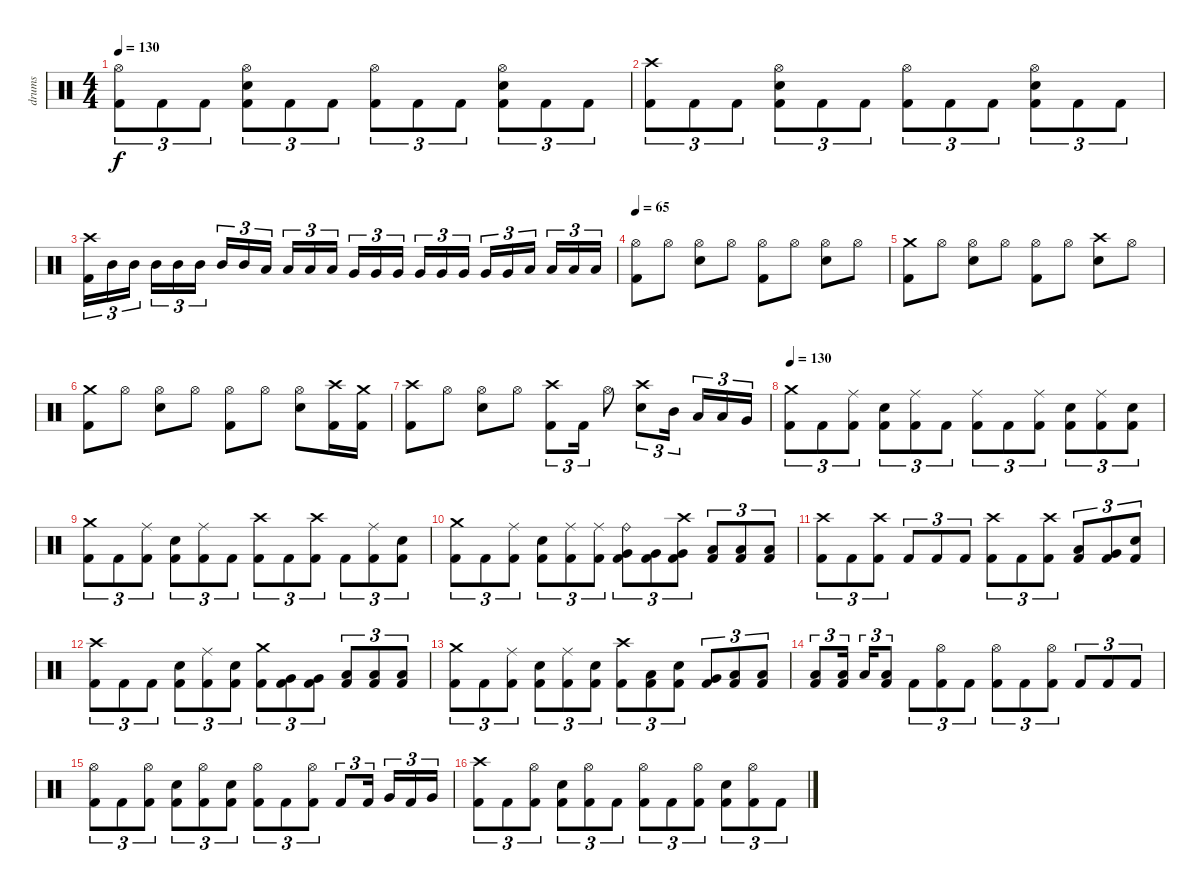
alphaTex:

\track ("drums" "drums") {instrument percussion}
\staff {score}
\articulation defaults
\ts (4 4)
\tempo 130
\clef neutral
\ks c
("Hi-Hat (open)" "Kick (hit) 2").8{tu (3 2) dy f} "Kick (hit) 2".8{tu (3 2)} "Kick (hit) 2".8{tu (3 2)} ("Hi-Hat (open)" "Electric Snare (hit)" "Kick (hit) 2").8{tu (3 2)} "Kick (hit) 2".8{tu (3 2)} "Kick (hit) 2".8{tu (3 2)} ("Hi-Hat (open)" "Kick (hit) 2").8{tu (3 2)} "Kick (hit) 2".8{tu (3 2)} "Kick (hit) 2".8{tu (3 2)} ("Hi-Hat (open)" "Electric Snare (hit)" "Kick (hit) 2").8{tu (3 2)} "Kick (hit) 2".8{tu (3 2)} "Kick (hit) 2".8{tu (3 2)} |
("Crash high (hit)" "Kick (hit) 2").8{tu (3 2)} "Kick (hit) 2".8{tu (3 2)} "Kick (hit) 2".8{tu (3 2)} ("Hi-Hat (open)" "Electric Snare (hit)" "Kick (hit) 2").8{tu (3 2)} "Kick (hit) 2".8{tu (3 2)} "Kick (hit) 2".8{tu (3 2)} ("Hi-Hat (open)" "Kick (hit) 2").8{tu (3 2)} "Kick (hit) 2".8{tu (3 2)} "Kick (hit) 2".8{tu (3 2)} ("Hi-Hat (open)" "Electric Snare (hit)" "Kick (hit) 2").8{tu (3 2)} "Kick (hit) 2".8{tu (3 2)} "Kick (hit) 2".8{tu (3 2)} |
("Crash high (hit)" "Kick (hit) 2").16{tu (3 2)} "Mid Tom (hit)".16{tu (3 2)} "Mid Tom (hit)".16{tu (3 2)} "Mid Tom (hit)".16{tu (3 2)} "Mid Tom (hit)".16{tu (3 2)} "Mid Tom (hit)".16{tu (3 2)} "Mid Tom (hit)".16{tu (3 2)} "Mid Tom (hit)".16{tu (3 2)} "Low Tom (hit)".16{tu (3 2)} "Low Tom (hit)".16{tu (3 2)} "Low Tom (hit)".16{tu (3 2)} "Low Tom (hit)".16{tu (3 2)} "Very Low Tom (hit)".16{tu (3 2)} "Very Low Tom (hit)".16{tu (3 2)} "Very Low Tom (hit)".16{tu (3 2)} "Very Low Tom (hit)".16{tu (3 2)} "Very Low Tom (hit)".16{tu (3 2)} "Very Low Tom (hit)".16{tu (3 2)} "Very Low Tom (hit)".16{tu (3 2)} "Very Low Tom (hit)".16{tu (3 2)} "Low Floor Tom (hit)".16{tu (3 2)} "Low Floor Tom (hit)".16{tu (3 2)} "Low Floor Tom (hit)".16{tu (3 2)} "Low Floor Tom (hit)".16{tu (3 2)} |
\tempo 65
("Hi-Hat (open)" "Kick (hit) 2").8 "Hi-Hat (open)".8 ("Hi-Hat (open)" "Electric Snare (hit)").8 "Hi-Hat (open)".8 ("Hi-Hat (open)" "Kick (hit) 2").8 "Hi-Hat (open)".8 ("Hi-Hat (open)" "Electric Snare (hit)").8 "Hi-Hat (open)".8 |
("Crash medium (hit)" "Kick (hit) 2").8 "Hi-Hat (open)".8 ("Hi-Hat (open)" "Electric Snare (hit)").8 "Hi-Hat (open)".8 ("Hi-Hat (open)" "Kick (hit) 2").8 "Hi-Hat (open)".8 ("Crash high (hit)" "Electric Snare (hit)").8 "Hi-Hat (open)".8 |
("Crash medium (hit)" "Kick (hit) 2").8 "Hi-Hat (open)".8 ("Hi-Hat (open)" "Electric Snare (hit)").8 "Hi-Hat (open)".8 ("Hi-Hat (open)" "Kick (hit) 2").8 "Hi-Hat (open)".8 ("Hi-Hat (open)" "Electric Snare (hit)").8 ("Crash high (hit)" "Kick (hit) 2").16 ("Crash medium (hit)" "Kick (hit) 2").16 |
("Crash high (hit)" "Kick (hit) 2").8 "Hi-Hat (open)".8 ("Hi-Hat (open)" "Electric Snare (hit)").8 "Hi-Hat (open)".8 ("Crash high (hit)" "Kick (hit) 2").8{tu (3 2)} "Kick (hit) 2".16{tu (3 2)} "Hi-Hat (open)".8 ("Crash high (hit)" "Electric Snare (hit)").8{tu (3 2)} "Mid Tom (hit)".16{tu (3 2)} "Low Tom (hit)".16{tu (3 2)} "Low Tom (hit)".16{tu (3 2)} "Very Low Tom (hit)".16{tu (3 2)} |
\tempo 130
("Crash medium (hit)" "Kick (hit) 2").8{tu (3 2)} "Kick (hit) 2".8{tu (3 2)} ("Ride (middle)" "Kick (hit) 2").8{tu (3 2)} ("Electric Snare (hit)" "Kick (hit) 2").8{tu (3 2)} ("Ride (middle)" "Kick (hit) 2").8{tu (3 2)} "Kick (hit) 2".8{tu (3 2)} ("Ride (middle)" "Kick (hit) 2").8{tu (3 2)} "Kick (hit) 2".8{tu (3 2)} ("Ride (middle)" "Kick (hit) 2").8{tu (3 2)} ("Electric Snare (hit)" "Kick (hit) 2").8{tu (3 2)} ("Ride (middle)" "Kick (hit) 2").8{tu (3 2)} ("Electric Snare (hit)" "Kick (hit) 2").8{tu (3 2)} |
("Crash medium (hit)" "Kick (hit) 2").8{tu (3 2)} "Kick (hit) 2".8{tu (3 2)} ("Ride (middle)" "Kick (hit) 2").8{tu (3 2)} ("Electric Snare (hit)" "Kick (hit) 2").8{tu (3 2)} ("Ride (middle)" "Kick (hit) 2").8{tu (3 2)} "Kick (hit) 2".8{tu (3 2)} ("Crash high (hit)" "Kick (hit) 2").8{tu (3 2)} "Kick (hit) 2".8{tu (3 2)} ("Crash high (hit)" "Kick (hit) 2").8{tu (3 2)} "Kick (hit) 2".8{tu (3 2)} ("Ride (middle)" "Kick (hit) 2").8{tu (3 2)} ("Electric Snare (hit)" "Kick (hit) 2").8{tu (3 2)} |
("Crash medium (hit)" "Kick (hit) 2").8{tu (3 2)} "Kick (hit) 2".8{tu (3 2)} ("Ride (middle)" "Kick (hit) 2").8{tu (3 2)} ("Electric Snare (hit)" "Kick (hit) 2").8{tu (3 2)} ("Ride (middle)" "Kick (hit) 2").8{tu (3 2)} ("Ride (middle)" "Kick (hit) 2").8{tu (3 2)} ("Ride (bell)" "Very Low Tom (hit)" "Kick (hit) 2").8{tu (3 2)} ("Very Low Tom (hit)" "Kick (hit) 2").8{tu (3 2)} ("Crash high (hit)" "Very Low Tom (hit)" "Kick (hit) 2").8{tu (3 2)} ("Low Floor Tom (hit)" "Kick (hit) 2").8{tu (3 2)} ("Low Floor Tom (hit)" "Kick (hit) 2").8{tu (3 2)} ("Low Floor Tom (hit)" "Kick (hit) 2").8{tu (3 2)} |
("Crash high (hit)" "Kick (hit) 2").8{tu (3 2)} "Kick (hit) 2".8{tu (3 2)} ("Crash high (hit)" "Kick (hit) 2").8{tu (3 2)} "Kick (hit) 2".8{tu (3 2)} "Kick (hit) 2".8{tu (3 2)} "Kick (hit) 2".8{tu (3 2)} ("Crash high (hit)" "Kick (hit) 2").8{tu (3 2)} "Kick (hit) 2".8{tu (3 2)} ("Crash high (hit)" "Kick (hit) 2").8{tu (3 2)} ("Low Tom (hit)" "Kick (hit) 2").8{tu (3 2)} ("Very Low Tom (hit)" "Kick (hit) 2").8{tu (3 2)} ("Electric Snare (hit)" "Kick (hit) 2").8{tu (3 2)} |
("Crash high (hit)" "Kick (hit) 2").8{tu (3 2)} "Kick (hit) 2".8{tu (3 2)} "Kick (hit) 2".8{tu (3 2)} ("Electric Snare (hit)" "Kick (hit) 2").8{tu (3 2)} ("Ride (middle)" "Kick (hit) 2").8{tu (3 2)} ("Electric Snare (hit)" "Kick (hit) 2").8{tu (3 2)} ("Crash medium (hit)" "Kick (hit) 2").8{tu (3 2)} ("Very Low Tom (hit)" "Kick (hit) 2").8{tu (3 2)} ("Very Low Tom (hit)" "Kick (hit) 2").8{tu (3 2)} ("Low Floor Tom (hit)" "Kick (hit) 2").8{tu (3 2)} ("Low Floor Tom (hit)" "Kick (hit) 2").8{tu (3 2)} ("Low Floor Tom (hit)" "Kick (hit) 2").8{tu (3 2)} |
("Crash medium (hit)" "Kick (hit) 2").8{tu (3 2)} "Kick (hit) 2".8{tu (3 2)} ("Ride (middle)" "Kick (hit) 2").8{tu (3 2)} ("Electric Snare (hit)" "Kick (hit) 2").8{tu (3 2)} ("Ride (middle)" "Kick (hit) 2").8{tu (3 2)} ("Electric Snare (hit)" "Kick (hit) 2").8{tu (3 2)} ("Crash high (hit)" "Kick (hit) 2").8{tu (3 2)} ("Low Tom (hit)" "Kick (hit) 2").8{tu (3 2)} ("Electric Snare (hit)" "Kick (hit) 2").8{tu (3 2)} ("Very Low Tom (hit)" "Kick (hit) 2").8{tu (3 2)} ("Low Floor Tom (hit)" "Kick (hit) 2").8{tu (3 2)} ("Low Floor Tom (hit)" "Kick (hit) 2").8{tu (3 2)} |
("Low Tom (hit)" "Kick (hit) 2").8{tu (3 2)} ("Low Tom (hit)" "Kick (hit) 2").16{tu (3 2)} "Low Tom (hit)".16{tu (3 2)} ("Low Tom (hit)" "Kick (hit) 2").8{tu (3 2)} "Kick (hit) 2".8{tu (3 2)} ("Hi-Hat (open)" "Kick (hit) 2").8{tu (3 2)} "Kick (hit) 2".8{tu (3 2)} ("Hi-Hat (open)" "Kick (hit) 2").8{tu (3 2)} "Kick (hit) 2".8{tu (3 2)} ("Hi-Hat (open)" "Kick (hit) 2").8{tu (3 2)} "Kick (hit) 2".8{tu (3 2)} "Kick (hit) 2".8{tu (3 2)} "Kick (hit) 2".8{tu (3 2)} |
("Hi-Hat (open)" "Kick (hit) 2").8{tu (3 2)} "Kick (hit) 2".8{tu (3 2)} ("Hi-Hat (open)" "Kick (hit) 2").8{tu (3 2)} ("Electric Snare (hit)" "Kick (hit) 2").8{tu (3 2)} ("Hi-Hat (open)" "Kick (hit) 2").8{tu (3 2)} ("Electric Snare (hit)" "Kick (hit) 2").8{tu (3 2)} ("Hi-Hat (open)" "Kick (hit) 2").8{tu (3 2)} "Kick (hit) 2".8{tu (3 2)} ("Hi-Hat (open)" "Kick (hit) 2").8{tu (3 2)} "Kick (hit) 2".8{tu (3 2)} "Kick (hit) 2".16{tu (3 2)} "Very Low Tom (hit)".16{tu (3 2)} "Kick (hit) 2".16{tu (3 2)} "Very Low Tom (hit)".16{tu (3 2)} |
("Crash high (hit)" "Kick (hit) 2").8{tu (3 2)} "Kick (hit) 2".8{tu (3 2)} ("Hi-Hat (open)" "Kick (hit) 2").8{tu (3 2)} ("Electric Snare (hit)" "Kick (hit) 2").8{tu (3 2)} ("Hi-Hat (open)" "Kick (hit) 2").8{tu (3 2)} "Kick (hit) 2".8{tu (3 2)} ("Hi-Hat (open)" "Kick (hit) 2").8{tu (3 2)} "Kick (hit) 2".8{tu (3 2)} ("Hi-Hat (open)" "Kick (hit) 2").8{tu (3 2)} ("Electric Snare (hit)" "Kick (hit) 2").8{tu (3 2)} ("Hi-Hat (open)" "Kick (hit) 2").8{tu (3 2)} "Kick (hit) 2".8{tu (3 2)}
